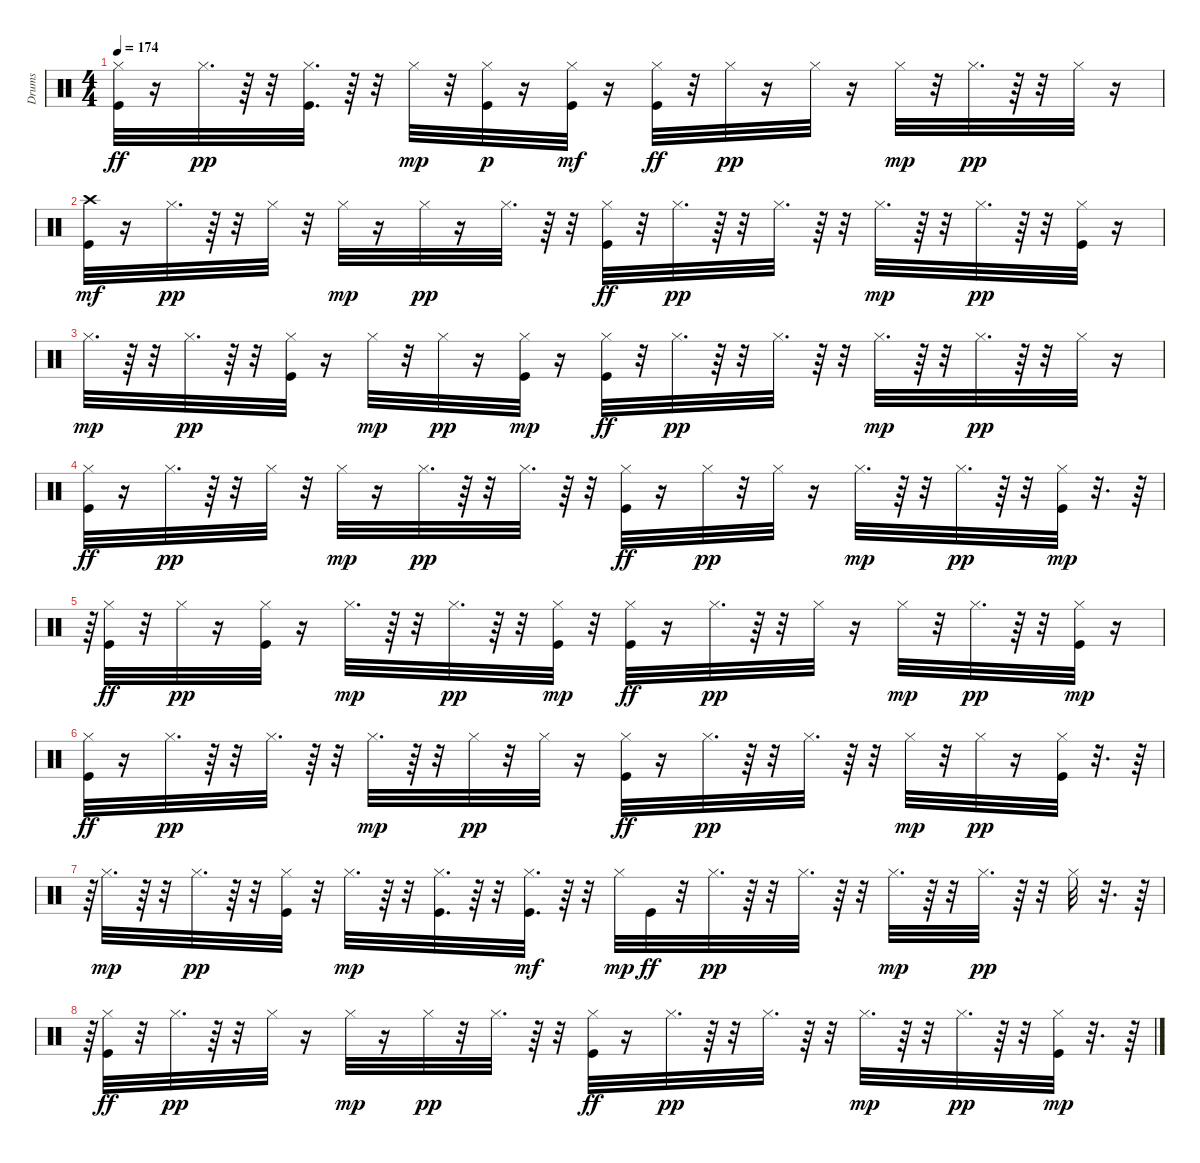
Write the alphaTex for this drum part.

\track ("Drums" "Drums") {instrument percussion}
\staff {score}
\articulation defaults
\ts (4 4)
\tempo 174
\clef neutral
\ks c
("Hi-Hat (closed)" "Kick (hit)").32{dy ff} r.16 "Hi-Hat (closed)".32{d dy pp} r.64 r.32 ("Hi-Hat (closed)" "Kick (hit)").32{d} r.64 r.32 "Hi-Hat (closed)".32{dy mp} r.32 ("Hi-Hat (closed)" "Kick (hit)").32{dy p} r.16 ("Hi-Hat (closed)" "Kick (hit)").32{dy mf} r.16 ("Hi-Hat (closed)" "Kick (hit)").32{dy ff} r.32 "Hi-Hat (closed)".32{dy pp} r.16 "Hi-Hat (closed)".32 r.16 "Hi-Hat (closed)".32{dy mp} r.32 "Hi-Hat (closed)".32{d dy pp} r.64 r.32 "Hi-Hat (closed)".32 r.16 |
("Kick (hit)" "Crash high (hit)").32{dy mf} r.16 "Hi-Hat (closed)".32{d dy pp} r.64 r.32 "Hi-Hat (closed)".32 r.32 "Hi-Hat (closed)".32{dy mp} r.16 "Hi-Hat (closed)".32{dy pp} r.16 "Hi-Hat (closed)".32{d} r.64 r.32 ("Hi-Hat (closed)" "Kick (hit)").32{dy ff} r.32 "Hi-Hat (closed)".32{d dy pp} r.64 r.32 "Hi-Hat (closed)".32{d} r.64 r.32 "Hi-Hat (closed)".32{d dy mp} r.64 r.32 "Hi-Hat (closed)".32{d dy pp} r.64 r.32 ("Hi-Hat (closed)" "Kick (hit)").32 r.16 |
"Hi-Hat (closed)".32{d dy mp} r.64 r.32 "Hi-Hat (closed)".32{d dy pp} r.64 r.32 ("Hi-Hat (closed)" "Kick (hit)").32 r.16 "Hi-Hat (closed)".32{dy mp} r.32 "Hi-Hat (closed)".32{dy pp} r.16 ("Hi-Hat (closed)" "Kick (hit)").32{dy mp} r.16 ("Hi-Hat (closed)" "Kick (hit)").32{dy ff} r.32 "Hi-Hat (closed)".32{d dy pp} r.64 r.32 "Hi-Hat (closed)".32{d} r.64 r.32 "Hi-Hat (closed)".32{d dy mp} r.64 r.32 "Hi-Hat (closed)".32{d dy pp} r.64 r.32 "Hi-Hat (closed)".32 r.16 |
("Hi-Hat (closed)" "Kick (hit)").32{dy ff} r.16 "Hi-Hat (closed)".32{d dy pp} r.64 r.32 "Hi-Hat (closed)".32 r.32 "Hi-Hat (closed)".32{dy mp} r.16 "Hi-Hat (closed)".32{d dy pp} r.64 r.32 "Hi-Hat (closed)".32{d} r.64 r.32 ("Hi-Hat (closed)" "Kick (hit)").32{dy ff} r.16 "Hi-Hat (closed)".32{dy pp} r.32 "Hi-Hat (closed)".32 r.16 "Hi-Hat (closed)".32{d dy mp} r.64 r.32 "Hi-Hat (closed)".32{d dy pp} r.64 r.32 ("Hi-Hat (closed)" "Kick (hit)").32{dy mp} r.32{d} r.64 |
r.64{tu (3 2)} ("Hi-Hat (closed)" "Kick (hit)").32{dy ff} r.32 "Hi-Hat (closed)".32{dy pp} r.16 ("Hi-Hat (closed)" "Kick (hit)").32 r.16 "Hi-Hat (closed)".32{d dy mp} r.64 r.32 "Hi-Hat (closed)".32{d dy pp} r.64 r.32 ("Hi-Hat (closed)" "Kick (hit)").32{dy mp} r.32 ("Hi-Hat (closed)" "Kick (hit)").32{dy ff} r.16 "Hi-Hat (closed)".32{d dy pp} r.64 r.32 "Hi-Hat (closed)".32 r.16 "Hi-Hat (closed)".32{dy mp} r.32 "Hi-Hat (closed)".32{d dy pp} r.64 r.32 ("Hi-Hat (closed)" "Kick (hit)").32{dy mp} r.16 |
("Hi-Hat (closed)" "Kick (hit)").32{dy ff} r.16 "Hi-Hat (closed)".32{d dy pp} r.64 r.32 "Hi-Hat (closed)".32{d} r.64 r.32 "Hi-Hat (closed)".32{d dy mp} r.64 r.32 "Hi-Hat (closed)".32{dy pp} r.32 "Hi-Hat (closed)".32 r.16 ("Hi-Hat (closed)" "Kick (hit)").32{dy ff} r.16 "Hi-Hat (closed)".32{d dy pp} r.64 r.32 "Hi-Hat (closed)".32{d} r.64 r.32 "Hi-Hat (closed)".32{dy mp} r.32 "Hi-Hat (closed)".32{dy pp} r.16 ("Hi-Hat (closed)" "Kick (hit)").32 r.32{d} r.64 |
r.64{tu (3 2)} "Hi-Hat (closed)".32{d dy mp} r.64 r.32 "Hi-Hat (closed)".32{d dy pp} r.64 r.32 ("Hi-Hat (closed)" "Kick (hit)").32 r.32 "Hi-Hat (closed)".32{d dy mp} r.64 r.32 ("Hi-Hat (closed)" "Kick (hit)").32{d} r.64 r.32 ("Hi-Hat (closed)" "Kick (hit)").32{d dy mf} r.64 r.32 "Hi-Hat (closed)".32{dy mp} "Kick (hit)".32{dy ff} r.32 "Hi-Hat (closed)".32{d dy pp} r.64 r.32 "Hi-Hat (closed)".32{d} r.64 r.32 "Hi-Hat (closed)".32{d dy mp} r.64 r.32 "Hi-Hat (closed)".32{d dy pp} r.64 r.32 "Hi-Hat (closed)".32 r.32{d} r.64 |
r.64{tu (3 2)} ("Hi-Hat (closed)" "Kick (hit)").32{dy ff} r.32 "Hi-Hat (closed)".32{d dy pp} r.64 r.32 "Hi-Hat (closed)".32 r.16 "Hi-Hat (closed)".32{dy mp} r.16 "Hi-Hat (closed)".32{dy pp} r.32 "Hi-Hat (closed)".32{d} r.64 r.32 ("Hi-Hat (closed)" "Kick (hit)").32{dy ff} r.16 "Hi-Hat (closed)".32{d dy pp} r.64 r.32 "Hi-Hat (closed)".32{d} r.64 r.32 "Hi-Hat (closed)".32{d dy mp} r.64 r.32 "Hi-Hat (closed)".32{d dy pp} r.64 r.32 ("Hi-Hat (closed)" "Kick (hit)").32{dy mp} r.32{d} r.64
